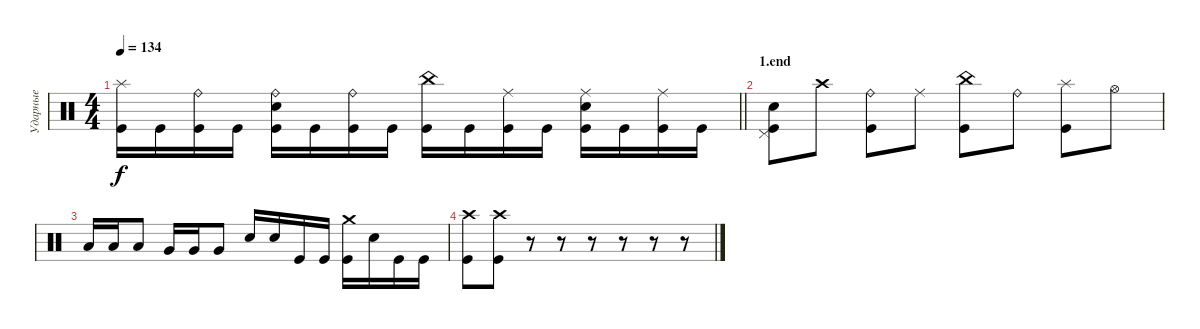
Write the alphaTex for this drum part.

\track ("Ударные" "Ударные") {instrument percussion}
\staff {score}
\articulation defaults
\ts (4 4)
\tempo 134
\clef neutral
\barLineRight lightlight
\ks c
("Splash (hit)" "Kick (hit)").16{dy f} "Kick (hit)".16 ("Ride (bell)" "Kick (hit)").16 "Kick (hit)".16 ("Ride (bell)" "Electric Snare (hit)" "Kick (hit)").16 "Kick (hit)".16 ("Ride (bell)" "Kick (hit)").16 "Kick (hit)".16 ("China (hit)" "Kick (hit)").16 "Kick (hit)".16 ("Ride (middle)" "Kick (hit)").16 "Kick (hit)".16 ("Ride (middle)" "Electric Snare (hit)" "Kick (hit)").16 "Kick (hit)".16 ("Ride (middle)" "Kick (hit)").16 "Kick (hit)".16 |
\section ("" "1.end")
("Pedal Hi-Hat (hit)" "Electric Snare (hit)" "Kick (hit)").8 "Crash high (hit)".8 ("Ride (bell)" "Kick (hit)").8 "Ride (middle)".8 ("China (hit)" "Kick (hit)").8 "Ride (bell)".8 ("Splash (hit)" "Kick (hit)").8 "Hi-Hat (open)".8 |
"Low Tom (hit)".16 "Low Tom (hit)".16 "Low Tom (hit)".8 "Very Low Tom (hit)".16 "Very Low Tom (hit)".16 "Very Low Tom (hit)".8 "Electric Snare (hit)".16 "Electric Snare (hit)".16 "Kick (hit)".16 "Kick (hit)".16 ("Crash medium (hit)" "Kick (hit)").16 "Electric Snare (hit)".16 "Kick (hit)".16 "Kick (hit)".16 |
("Crash high (hit)" "Kick (hit)").8 ("Crash high (hit)" "Kick (hit)").8 r.8 r.8 r.8 r.8 r.8 r.8
